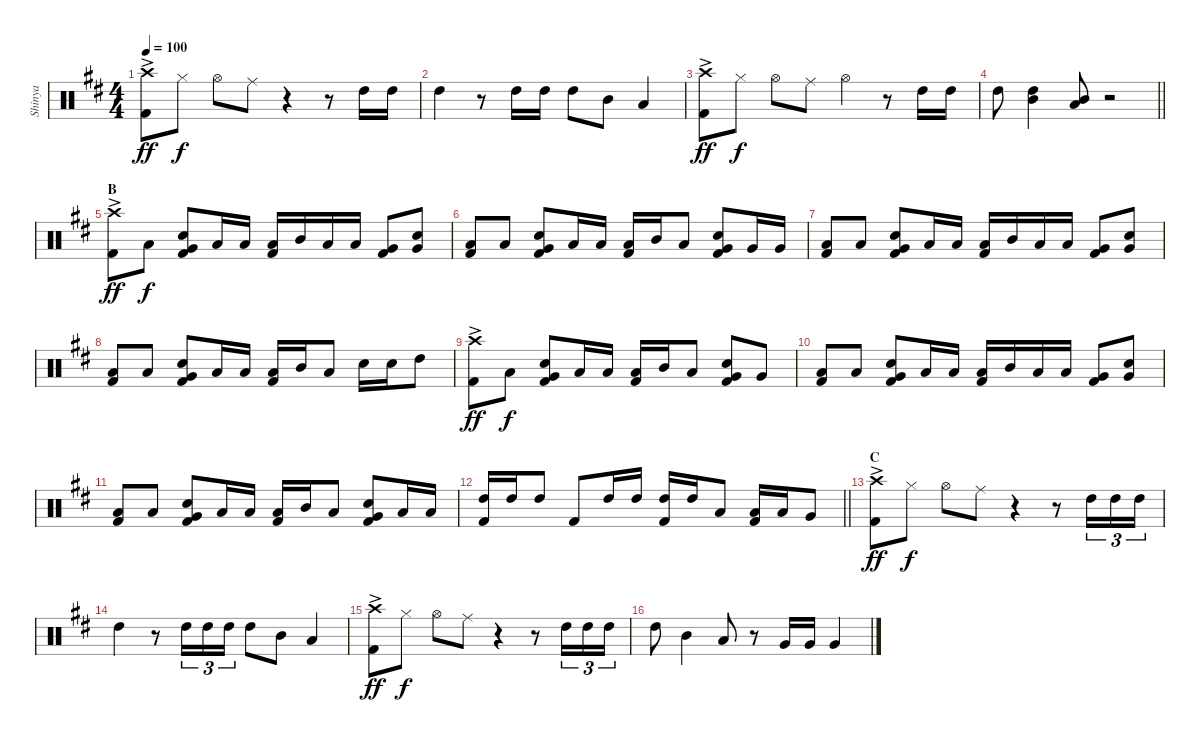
\track ("Shinya" "Shinya") {instrument percussion}
\staff {score}
\articulation defaults
\ts (4 4)
\tempo 100
\clef neutral
\ks d
("Crash high (hit)"{ac} "Kick (hit) 2").8{dy ff} "Hi-Hat (closed)".8{dy f} "Hi-Hat (open)".8 "Ride (middle)".8 r.4 r.8 "High Tom (hit)".16 "High Tom (hit)".16 |
"High Tom (hit)".4 r.8 "High Tom (hit)".16 "High Tom (hit)".16 "High Tom (hit)".8 "Mid Tom (hit)".8 "Low Tom (hit)".4 |
("Crash high (hit)"{ac} "Kick (hit) 2").8{dy ff} "Hi-Hat (closed)".8{dy f} "Hi-Hat (open)".8 "Ride (middle)".8 "Hi-Hat (open)".4 r.8 "High Tom (hit)".16 "High Tom (hit)".16 |
\barLineRight lightlight "High Tom (hit)".8
("High Tom (hit)" "Mid Tom (hit)").4 ("Mid Tom (hit)" "Low Tom (hit)").8 r.2 |
\section ("" "B")
("Crash high (hit)"{ac} "Kick (hit) 2").8{dy ff} "Low Tom (hit)".8{dy f} ("Snare (hit) 2" "Very Low Tom (hit)" "Kick (hit) 2").8 "Low Tom (hit)".16 "Low Tom (hit)".16 ("Low Tom (hit)" "Kick (hit) 2").16 "Mid Tom (hit)".16 "Low Tom (hit)".16 "Low Tom (hit)".16 ("Very Low Tom (hit)" "Kick (hit) 2").8 ("Snare (hit) 2" "Very Low Tom (hit)").8 |
("Low Tom (hit)" "Kick (hit) 2").8 "Low Tom (hit)".8 ("Snare (hit) 2" "Very Low Tom (hit)" "Kick (hit) 2").8 "Low Tom (hit)".16 "Low Tom (hit)".16 ("Low Tom (hit)" "Kick (hit) 2").16 "Mid Tom (hit)".16 "Low Tom (hit)".8 ("Snare (hit) 2" "Very Low Tom (hit)" "Kick (hit) 2").8 "Very Low Tom (hit)".16 "Very Low Tom (hit)".16 |
("Low Tom (hit)" "Kick (hit) 2").8 "Low Tom (hit)".8 ("Snare (hit) 2" "Very Low Tom (hit)" "Kick (hit) 2").8 "Low Tom (hit)".16 "Low Tom (hit)".16 ("Low Tom (hit)" "Kick (hit) 2").16 "Mid Tom (hit)".16 "Low Tom (hit)".16 "Low Tom (hit)".16 ("Very Low Tom (hit)" "Kick (hit) 2").8 ("Snare (hit) 2" "Very Low Tom (hit)").8 |
("Low Tom (hit)" "Kick (hit) 2").8 "Low Tom (hit)".8 ("Snare (hit) 2" "Very Low Tom (hit)" "Kick (hit) 2").8 "Low Tom (hit)".16 "Low Tom (hit)".16 ("Low Tom (hit)" "Kick (hit) 2").16 "Mid Tom (hit)".16 "Low Tom (hit)".8 "Snare (hit) 2".16 "Snare (hit) 2".16 "High Tom (hit)".8 |
("Crash high (hit)"{ac} "Kick (hit) 2").8{dy ff} "Low Tom (hit)".8{dy f} ("Snare (hit) 2" "Very Low Tom (hit)" "Kick (hit) 2").8 "Low Tom (hit)".16 "Low Tom (hit)".16 ("Low Tom (hit)" "Kick (hit) 2").16 "Mid Tom (hit)".16 "Low Tom (hit)".8 ("Snare (hit) 2" "Very Low Tom (hit)" "Kick (hit) 2").8 "Very Low Tom (hit)".8 |
("Low Tom (hit)" "Kick (hit) 2").8 "Low Tom (hit)".8 ("Snare (hit) 2" "Very Low Tom (hit)" "Kick (hit) 2").8 "Low Tom (hit)".16 "Low Tom (hit)".16 ("Low Tom (hit)" "Kick (hit) 2").16 "Mid Tom (hit)".16 "Low Tom (hit)".16 "Low Tom (hit)".16 ("Very Low Tom (hit)" "Kick (hit) 2").8 ("Snare (hit) 2" "Very Low Tom (hit)").8 |
("Low Tom (hit)" "Kick (hit) 2").8 "Low Tom (hit)".8 ("Snare (hit) 2" "Very Low Tom (hit)" "Kick (hit) 2").8 "Low Tom (hit)".16 "Low Tom (hit)".16 ("Low Tom (hit)" "Kick (hit) 2").16 "Mid Tom (hit)".16 "Low Tom (hit)".8 ("Snare (hit) 2" "Very Low Tom (hit)" "Kick (hit) 2").8 "Low Tom (hit)".16 "Low Tom (hit)".16 |
\barLineRight lightlight
("High Tom (hit)" "Kick (hit) 2").16 "High Tom (hit)".16 "High Tom (hit)".8 "Kick (hit) 2".8 "High Tom (hit)".16 "High Tom (hit)".16 ("High Tom (hit)" "Kick (hit) 2").16 "High Tom (hit)".16 "Low Tom (hit)".8 ("Low Tom (hit)" "Kick (hit) 2").16 "Low Tom (hit)".16 "Very Low Tom (hit)".8 |
\section ("" "C")
("Crash high (hit)"{ac} "Kick (hit) 2").8{dy ff} "Hi-Hat (closed)".8{dy f} "Hi-Hat (open)".8 "Ride (middle)".8 r.4 r.8 "High Tom (hit)".16{tu (3 2)} "High Tom (hit)".16{tu (3 2)} "High Tom (hit)".16{tu (3 2)} |
"High Tom (hit)".4 r.8 "High Tom (hit)".16{tu (3 2)} "High Tom (hit)".16{tu (3 2)} "High Tom (hit)".16{tu (3 2)} "High Tom (hit)".8 "Mid Tom (hit)".8 "Low Tom (hit)".4 |
("Crash high (hit)"{ac} "Kick (hit) 2").8{dy ff} "Hi-Hat (closed)".8{dy f} "Hi-Hat (open)".8 "Ride (middle)".8 r.4 r.8 "High Tom (hit)".16{tu (3 2)} "High Tom (hit)".16{tu (3 2)} "High Tom (hit)".16{tu (3 2)} |
"High Tom (hit)".8 "Mid Tom (hit)".4 "Low Tom (hit)".8 r.8 "Very Low Tom (hit)".16 "Very Low Tom (hit)".16 "Very Low Tom (hit)".4
